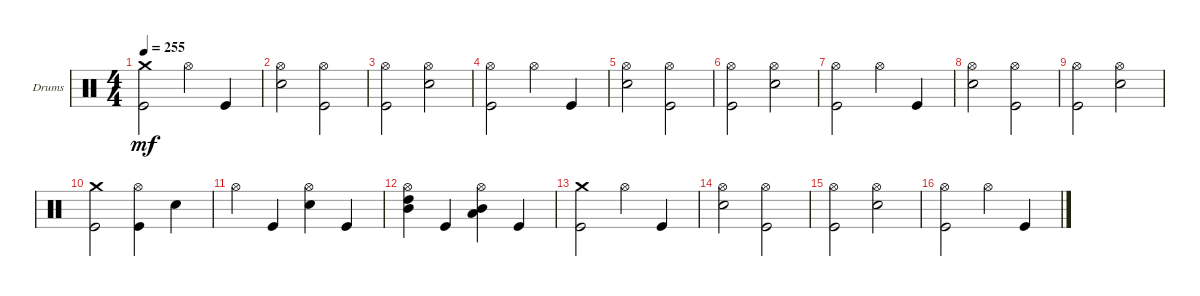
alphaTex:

\bracketExtendMode groupsimilarinstruments
\firstSystemTrackNameOrientation horizontal
\otherSystemsTrackNameOrientation horizontal
\track ("Drums" "Drums") {instrument percussion}
\staff {score}
\articulation defaults
\ts (4 4)
\tempo 255
\clef neutral
\ks c
("Kick (hit)" "Crash medium (hit)").2{dy mf} "Hi-Hat (open)".4 "Kick (hit)".4 |
("Snare (hit) 2" "Hi-Hat (open)").2 ("Kick (hit)" "Hi-Hat (open)").2 |
("Kick (hit)" "Hi-Hat (open)").2 ("Snare (hit) 2" "Hi-Hat (open)").2 |
("Kick (hit)" "Hi-Hat (open)").2 "Hi-Hat (open)".4 "Kick (hit)".4 |
("Snare (hit) 2" "Hi-Hat (open)").2 ("Kick (hit)" "Hi-Hat (open)").2 |
("Kick (hit)" "Hi-Hat (open)").2 ("Snare (hit) 2" "Hi-Hat (open)").2 |
("Kick (hit)" "Hi-Hat (open)").2 "Hi-Hat (open)".4 "Kick (hit)".4 |
("Snare (hit) 2" "Hi-Hat (open)").2 ("Kick (hit)" "Hi-Hat (open)").2 |
("Kick (hit)" "Hi-Hat (open)").2 ("Snare (hit) 2" "Hi-Hat (open)").2 |
("Kick (hit)" "Crash medium (hit)").2 ("Kick (hit)" "Hi-Hat (open)").4 "Snare (hit) 2".4 |
"Hi-Hat (open)".4 "Kick (hit)".4 ("Snare (hit) 2" "Hi-Hat (open)").4 "Kick (hit)".4 |
("Mid Tom (hit)" "High Tom (hit)" "Hi-Hat (open)").4 "Kick (hit)".4 ("Low Tom (hit)" "Mid Tom (hit)" "Hi-Hat (open)").4 "Kick (hit)".4 |
("Kick (hit)" "Crash medium (hit)").2 "Hi-Hat (open)".4 "Kick (hit)".4 |
("Snare (hit) 2" "Hi-Hat (open)").2 ("Kick (hit)" "Hi-Hat (open)").2 |
("Kick (hit)" "Hi-Hat (open)").2 ("Snare (hit) 2" "Hi-Hat (open)").2 |
("Kick (hit)" "Hi-Hat (open)").2 "Hi-Hat (open)".4 "Kick (hit)".4
